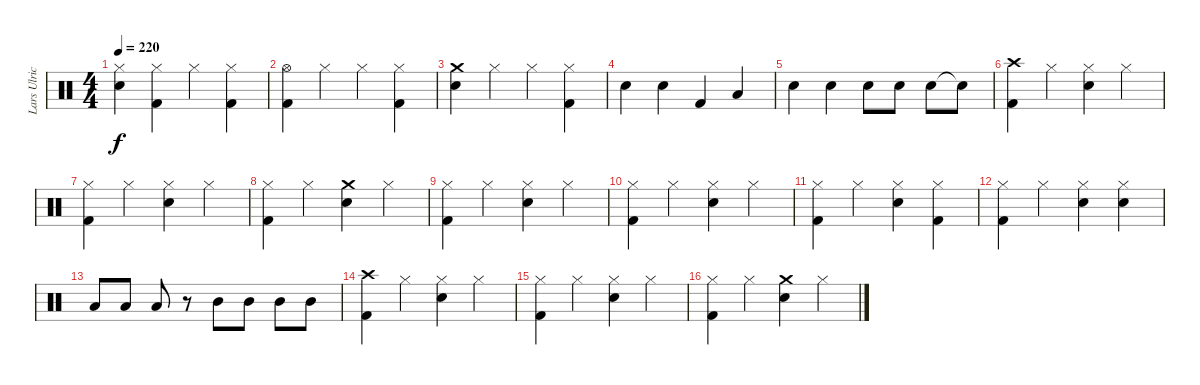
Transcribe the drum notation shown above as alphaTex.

\track ("Lars Ulrich (Drums)" "Lars Ulric") {instrument percussion}
\staff {score}
\articulation defaults
\ts (4 4)
\tempo 220
\clef neutral
\ks c
("Hi-Hat (closed)" "Snare (hit) 2").4{dy f} ("Hi-Hat (closed)" "Kick (hit) 2").4 "Hi-Hat (closed)".4 ("Hi-Hat (closed)" "Kick (hit) 2").4 |
("Hi-Hat (open)" "Kick (hit) 2").4 "Hi-Hat (closed)".4 "Hi-Hat (closed)".4 ("Hi-Hat (closed)" "Kick (hit) 2").4 |
("Crash medium (hit)" "Snare (hit) 2").4 "Hi-Hat (closed)".4 "Hi-Hat (closed)".4 ("Hi-Hat (closed)" "Kick (hit) 2").4 |
"Snare (hit) 2".4 "Snare (hit) 2".4 "Kick (hit) 2".4 "Low Tom (hit)".4 |
"Snare (hit) 2".4 "Snare (hit) 2".4 "Snare (hit) 2".8 "Snare (hit) 2".8 "Snare (hit) 2".8 "Snare (hit)"{t}.8 |
("Crash high (hit)" "Kick (hit) 2").4 "Hi-Hat (closed)".4 ("Hi-Hat (closed)" "Snare (hit) 2").4 "Hi-Hat (closed)".4 |
("Hi-Hat (closed)" "Kick (hit) 2").4 "Hi-Hat (closed)".4 ("Hi-Hat (closed)" "Snare (hit) 2").4 "Hi-Hat (closed)".4 |
("Hi-Hat (closed)" "Kick (hit) 2").4 "Hi-Hat (closed)".4 ("Crash medium (hit)" "Snare (hit) 2").4 "Hi-Hat (closed)".4 |
("Hi-Hat (closed)" "Kick (hit) 2").4 "Hi-Hat (closed)".4 ("Hi-Hat (closed)" "Snare (hit) 2").4 "Hi-Hat (closed)".4 |
("Hi-Hat (closed)" "Kick (hit) 2").4 "Hi-Hat (closed)".4 ("Hi-Hat (closed)" "Snare (hit) 2").4 "Hi-Hat (closed)".4 |
("Hi-Hat (closed)" "Kick (hit) 2").4 "Hi-Hat (closed)".4 ("Hi-Hat (closed)" "Snare (hit) 2").4 ("Hi-Hat (closed)" "Kick (hit) 2").4 |
("Hi-Hat (closed)" "Kick (hit) 2").4 "Hi-Hat (closed)".4 ("Hi-Hat (closed)" "Snare (hit) 2").4 ("Hi-Hat (closed)" "Snare (hit) 2").4 |
"Low Tom (hit)".8 "Low Tom (hit)".8 "Low Tom (hit)".8 r.8 "Mid Tom (hit)".8 "Mid Tom (hit)".8 "Mid Tom (hit)".8 "Mid Tom (hit)".8 |
("Crash high (hit)" "Kick (hit) 2").4 "Hi-Hat (closed)".4 ("Hi-Hat (closed)" "Snare (hit) 2").4 "Hi-Hat (closed)".4 |
("Hi-Hat (closed)" "Kick (hit) 2").4 "Hi-Hat (closed)".4 ("Hi-Hat (closed)" "Snare (hit) 2").4 "Hi-Hat (closed)".4 |
("Hi-Hat (closed)" "Kick (hit) 2").4 "Hi-Hat (closed)".4 ("Crash medium (hit)" "Snare (hit) 2").4 "Hi-Hat (closed)".4
